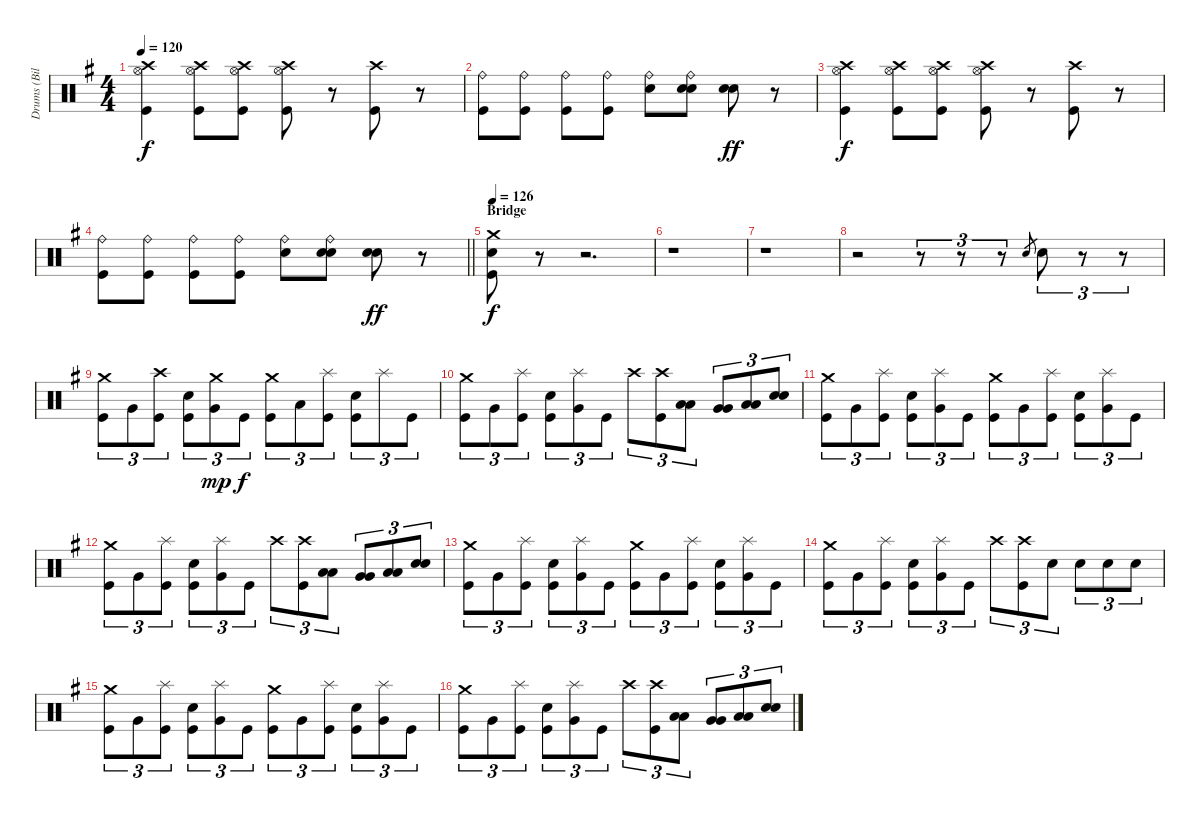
\track ("Drums (Bill Ward)" "Drums (Bil") {instrument percussion}
\staff {score}
\articulation defaults
\ts (4 4)
\tempo 120
\clef neutral
\ks g
("Crash high (hit)" "Hi-Hat (open)" "Kick (hit)").4{dy f} ("Crash high (hit)" "Hi-Hat (open)" "Kick (hit)").8 ("Crash high (hit)" "Hi-Hat (open)" "Kick (hit)").8 ("Crash high (hit)" "Hi-Hat (open)" "Kick (hit)").8 r.8 ("Crash high (hit)" "Kick (hit)").8 r.8 |
("Ride (bell)" "Kick (hit)").8 ("Ride (bell)" "Kick (hit)").8 ("Ride (bell)" "Kick (hit)").8 ("Ride (bell)" "Kick (hit)").8 ("Ride (bell)" "Electric Snare (hit)").8 ("Ride (bell)" "Electric Snare (hit)" "Electric Snare (hit)").8 ("Electric Snare (hit)" "Electric Snare (hit)").8{dy ff} r.8 |
("Crash high (hit)" "Hi-Hat (open)" "Kick (hit)").4{dy f} ("Crash high (hit)" "Hi-Hat (open)" "Kick (hit)").8 ("Crash high (hit)" "Hi-Hat (open)" "Kick (hit)").8 ("Crash high (hit)" "Hi-Hat (open)" "Kick (hit)").8 r.8 ("Crash high (hit)" "Kick (hit)").8 r.8 |
\barLineRight lightlight
("Ride (bell)" "Kick (hit)").8 ("Ride (bell)" "Kick (hit)").8 ("Ride (bell)" "Kick (hit)").8 ("Ride (bell)" "Kick (hit)").8 ("Ride (bell)" "Electric Snare (hit)").8 ("Ride (bell)" "Electric Snare (hit)" "Electric Snare (hit)").8 ("Electric Snare (hit)" "Electric Snare (hit)").8{dy ff} r.8 |
\section ("" "Bridge")
\tempo 126
("Crash medium (hit)" "Electric Snare (hit)" "Kick (hit)").8{dy f} r.8 r.2{d} |
r.1 |
r.1 |
r.2 r.8{tu (3 2)} r.8{tu (3 2)} r.8{tu (3 2)} "Electric Snare (hit)".8{gr} "Electric Snare (hit)".8{tu (3 2)} r.8{tu (3 2)} r.8{tu (3 2)} |
("Crash medium (hit)" "Kick (hit)").8{tu (3 2)} "Very Low Tom (hit)".8{tu (3 2)} ("Crash high (hit)" "Kick (hit)").8{tu (3 2)} ("Electric Snare (hit)" "Kick (hit)").8{tu (3 2)} ("Crash medium (hit)" "Very Low Tom (hit)").8{tu (3 2) dy mp} "Kick (hit)".8{tu (3 2) dy f} ("Crash medium (hit)" "Kick (hit)").8{tu (3 2)} "Low Tom (hit)".8{tu (3 2)} ("Splash (hit)" "Kick (hit)").8{tu (3 2)} ("Electric Snare (hit)" "Kick (hit)").8{tu (3 2)} "Splash (hit)".8{tu (3 2)} "Kick (hit)".8{tu (3 2)} |
("Crash medium (hit)" "Kick (hit)").8{tu (3 2)} "Very Low Tom (hit)".8{tu (3 2)} ("Splash (hit)" "Kick (hit)").8{tu (3 2)} ("Electric Snare (hit)" "Kick (hit)").8{tu (3 2)} ("Splash (hit)" "Very Low Tom (hit)").8{tu (3 2)} "Kick (hit)".8{tu (3 2)} "Crash high (hit)".8{tu (3 2)} ("Crash high (hit)" "Kick (hit)").8{tu (3 2)} ("Low Tom (hit)" "Low Tom (hit)").8{tu (3 2)} ("Very Low Tom (hit)" "Very Low Tom (hit)").8{tu (3 2)} ("Low Tom (hit)" "Low Tom (hit)").8{tu (3 2)} ("Electric Snare (hit)" "Electric Snare (hit)").8{tu (3 2)} |
("Crash medium (hit)" "Kick (hit)").8{tu (3 2)} "Very Low Tom (hit)".8{tu (3 2)} ("Splash (hit)" "Kick (hit)").8{tu (3 2)} ("Electric Snare (hit)" "Kick (hit)").8{tu (3 2)} ("Splash (hit)" "Very Low Tom (hit)").8{tu (3 2)} "Kick (hit)".8{tu (3 2)} ("Crash medium (hit)" "Kick (hit)").8{tu (3 2)} "Very Low Tom (hit)".8{tu (3 2)} ("Splash (hit)" "Kick (hit)").8{tu (3 2)} ("Electric Snare (hit)" "Kick (hit)").8{tu (3 2)} ("Splash (hit)" "Very Low Tom (hit)").8{tu (3 2)} "Kick (hit)".8{tu (3 2)} |
("Crash medium (hit)" "Kick (hit)").8{tu (3 2)} "Very Low Tom (hit)".8{tu (3 2)} ("Splash (hit)" "Kick (hit)").8{tu (3 2)} ("Electric Snare (hit)" "Kick (hit)").8{tu (3 2)} ("Splash (hit)" "Very Low Tom (hit)").8{tu (3 2)} "Kick (hit)".8{tu (3 2)} "Crash high (hit)".8{tu (3 2)} ("Crash high (hit)" "Kick (hit)").8{tu (3 2)} ("Low Tom (hit)" "Low Tom (hit)").8{tu (3 2)} ("Very Low Tom (hit)" "Very Low Tom (hit)").8{tu (3 2)} ("Low Tom (hit)" "Low Tom (hit)").8{tu (3 2)} ("Electric Snare (hit)" "Electric Snare (hit)").8{tu (3 2)} |
("Crash medium (hit)" "Kick (hit)").8{tu (3 2)} "Very Low Tom (hit)".8{tu (3 2)} ("Splash (hit)" "Kick (hit)").8{tu (3 2)} ("Electric Snare (hit)" "Kick (hit)").8{tu (3 2)} ("Splash (hit)" "Very Low Tom (hit)").8{tu (3 2)} "Kick (hit)".8{tu (3 2)} ("Crash medium (hit)" "Kick (hit)").8{tu (3 2)} "Very Low Tom (hit)".8{tu (3 2)} ("Splash (hit)" "Kick (hit)").8{tu (3 2)} ("Electric Snare (hit)" "Kick (hit)").8{tu (3 2)} ("Splash (hit)" "Very Low Tom (hit)").8{tu (3 2)} "Kick (hit)".8{tu (3 2)} |
("Crash medium (hit)" "Kick (hit)").8{tu (3 2)} "Very Low Tom (hit)".8{tu (3 2)} ("Splash (hit)" "Kick (hit)").8{tu (3 2)} ("Electric Snare (hit)" "Kick (hit)").8{tu (3 2)} ("Splash (hit)" "Very Low Tom (hit)").8{tu (3 2)} "Kick (hit)".8{tu (3 2)} "Crash high (hit)".8{tu (3 2)} ("Crash high (hit)" "Kick (hit)").8{tu (3 2)} "Electric Snare (hit)".8{tu (3 2)} "Electric Snare (hit)".8{tu (3 2)} "Electric Snare (hit)".8{tu (3 2)} "Electric Snare (hit)".8{tu (3 2)} |
("Crash medium (hit)" "Kick (hit)").8{tu (3 2)} "Very Low Tom (hit)".8{tu (3 2)} ("Splash (hit)" "Kick (hit)").8{tu (3 2)} ("Electric Snare (hit)" "Kick (hit)").8{tu (3 2)} ("Splash (hit)" "Very Low Tom (hit)").8{tu (3 2)} "Kick (hit)".8{tu (3 2)} ("Crash medium (hit)" "Kick (hit)").8{tu (3 2)} "Very Low Tom (hit)".8{tu (3 2)} ("Splash (hit)" "Kick (hit)").8{tu (3 2)} ("Electric Snare (hit)" "Kick (hit)").8{tu (3 2)} ("Splash (hit)" "Very Low Tom (hit)").8{tu (3 2)} "Kick (hit)".8{tu (3 2)} |
("Crash medium (hit)" "Kick (hit)").8{tu (3 2)} "Very Low Tom (hit)".8{tu (3 2)} ("Splash (hit)" "Kick (hit)").8{tu (3 2)} ("Electric Snare (hit)" "Kick (hit)").8{tu (3 2)} ("Splash (hit)" "Very Low Tom (hit)").8{tu (3 2)} "Kick (hit)".8{tu (3 2)} "Crash high (hit)".8{tu (3 2)} ("Crash high (hit)" "Kick (hit)").8{tu (3 2)} ("Low Tom (hit)" "Low Tom (hit)").8{tu (3 2)} ("Very Low Tom (hit)" "Very Low Tom (hit)").8{tu (3 2)} ("Low Tom (hit)" "Low Tom (hit)").8{tu (3 2)} ("Electric Snare (hit)" "Electric Snare (hit)").8{tu (3 2)}
